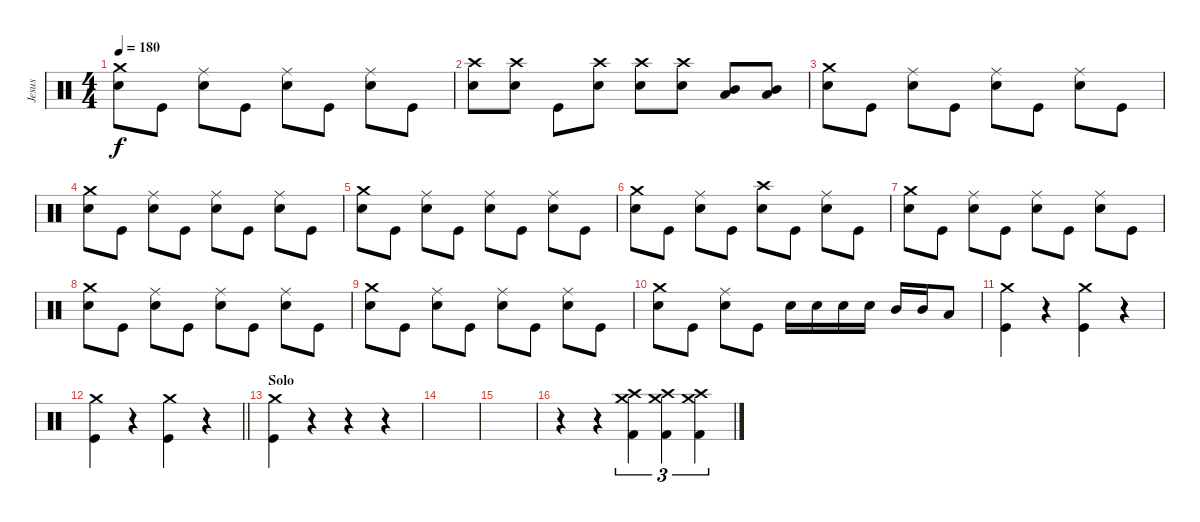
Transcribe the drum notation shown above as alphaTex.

\track ("Jesus" "Jesus") {instrument percussion}
\staff {score}
\articulation defaults
\ts (4 4)
\tempo 180
\clef neutral
\ks c
("Crash medium (hit)" "Snare (hit) 2").8{dy f} "Kick (hit)".8 ("Ride (middle)" "Snare (hit) 2").8 "Kick (hit)".8 ("Ride (middle)" "Snare (hit) 2").8 "Kick (hit)".8 ("Ride (middle)" "Snare (hit) 2").8 "Kick (hit)".8 |
("Crash high (hit)" "Snare (hit) 2").8 ("Crash high (hit)" "Snare (hit) 2").8 "Kick (hit)".8 ("Crash high (hit)" "Snare (hit) 2").8 ("Crash high (hit)" "Snare (hit) 2").8 ("Crash high (hit)" "Snare (hit) 2").8 ("Mid Tom (hit)" "Low Tom (hit)").8 ("Mid Tom (hit)" "Low Tom (hit)").8 |
("Crash medium (hit)" "Snare (hit) 2").8 "Kick (hit)".8 ("Ride (middle)" "Snare (hit) 2").8 "Kick (hit)".8 ("Ride (middle)" "Snare (hit) 2").8 "Kick (hit)".8 ("Ride (middle)" "Snare (hit) 2").8 "Kick (hit)".8 |
("Crash medium (hit)" "Snare (hit) 2").8 "Kick (hit)".8 ("Ride (middle)" "Snare (hit) 2").8 "Kick (hit)".8 ("Ride (middle)" "Snare (hit) 2").8 "Kick (hit)".8 ("Ride (middle)" "Snare (hit) 2").8 "Kick (hit)".8 |
("Crash medium (hit)" "Snare (hit) 2").8 "Kick (hit)".8 ("Ride (middle)" "Snare (hit) 2").8 "Kick (hit)".8 ("Ride (middle)" "Snare (hit) 2").8 "Kick (hit)".8 ("Ride (middle)" "Snare (hit) 2").8 "Kick (hit)".8 |
("Crash medium (hit)" "Snare (hit) 2").8 "Kick (hit)".8 ("Ride (middle)" "Snare (hit) 2").8 "Kick (hit)".8 ("Crash high (hit)" "Snare (hit) 2").8 "Kick (hit)".8 ("Ride (middle)" "Snare (hit) 2").8 "Kick (hit)".8 |
("Crash medium (hit)" "Snare (hit) 2").8 "Kick (hit)".8 ("Ride (middle)" "Snare (hit) 2").8 "Kick (hit)".8 ("Ride (middle)" "Snare (hit) 2").8 "Kick (hit)".8 ("Ride (middle)" "Snare (hit) 2").8 "Kick (hit)".8 |
("Crash medium (hit)" "Snare (hit) 2").8 "Kick (hit)".8 ("Ride (middle)" "Snare (hit) 2").8 "Kick (hit)".8 ("Ride (middle)" "Snare (hit) 2").8 "Kick (hit)".8 ("Ride (middle)" "Snare (hit) 2").8 "Kick (hit)".8 |
("Crash medium (hit)" "Snare (hit) 2").8 "Kick (hit)".8 ("Ride (middle)" "Snare (hit) 2").8 "Kick (hit)".8 ("Ride (middle)" "Snare (hit) 2").8 "Kick (hit)".8 ("Ride (middle)" "Snare (hit) 2").8 "Kick (hit)".8 |
("Crash medium (hit)" "Snare (hit) 2").8 "Kick (hit)".8 ("Ride (middle)" "Snare (hit) 2").8 "Kick (hit)".8 "Snare (hit) 2".16 "Snare (hit) 2".16 "Snare (hit) 2".16 "Snare (hit) 2".16 "Mid Tom (hit)".16 "Mid Tom (hit)".16 "Low Tom (hit)".8 |
("Crash medium (hit)" "Kick (hit)").4 r.4 ("Crash medium (hit)" "Kick (hit)").4 r.4 |
\barLineRight lightlight
("Crash medium (hit)" "Kick (hit)").4 r.4 ("Crash medium (hit)" "Kick (hit)").4 r.4 |
\section ("" "Solo")
("Crash medium (hit)" "Kick (hit)").4 r.4 r.4 r.4 |
|
|
r.4 r.4 ("Crash high (hit)" "Crash medium (hit)" "Kick (hit) 2").4{tu (3 2)} ("Crash high (hit)" "Crash medium (hit)" "Kick (hit) 2").4{tu (3 2)} ("Crash high (hit)" "Crash medium (hit)" "Kick (hit) 2").4{tu (3 2)}
